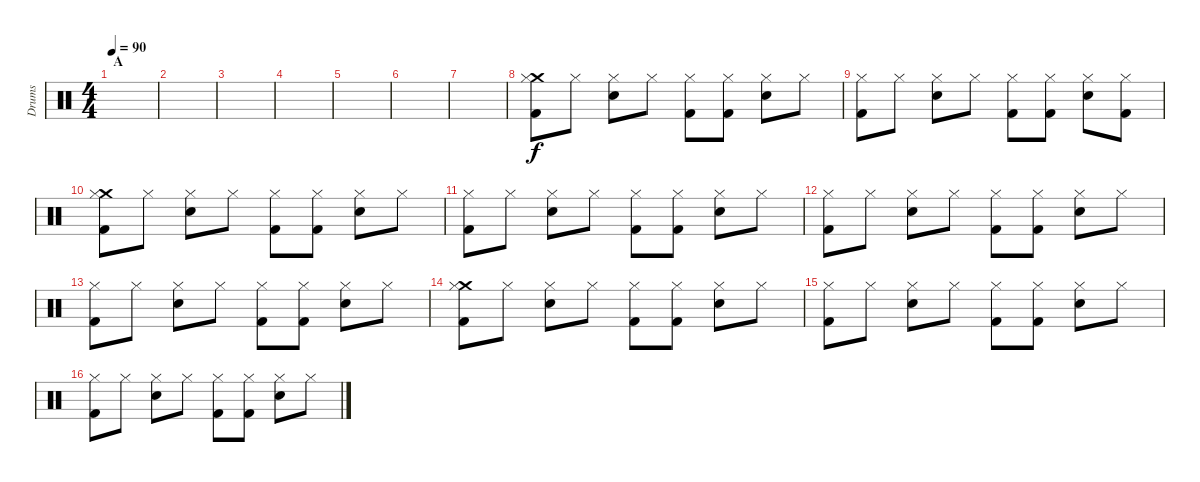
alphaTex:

\track ("Drums" "Drums") {instrument percussion}
\staff {score}
\articulation defaults
\ts (4 4)
\section ("" "A")
\tempo 90
\clef neutral
\ks c
|
|
|
|
|
|
|
("Crash medium (hit)" "Hi-Hat (closed)" "Kick (hit) 2").8 "Hi-Hat (closed)".8 ("Hi-Hat (closed)" "Snare (hit) 2").8 "Hi-Hat (closed)".8 ("Hi-Hat (closed)" "Kick (hit) 2").8 ("Hi-Hat (closed)" "Kick (hit) 2").8 ("Hi-Hat (closed)" "Snare (hit) 2").8 "Hi-Hat (closed)".8 |
("Hi-Hat (closed)" "Kick (hit) 2").8 "Hi-Hat (closed)".8 ("Hi-Hat (closed)" "Snare (hit) 2").8 "Hi-Hat (closed)".8 ("Hi-Hat (closed)" "Kick (hit) 2").8 ("Hi-Hat (closed)" "Kick (hit) 2").8 ("Hi-Hat (closed)" "Snare (hit) 2").8 ("Hi-Hat (closed)" "Kick (hit) 2").8 |
("Crash medium (hit)" "Hi-Hat (closed)" "Kick (hit) 2").8 "Hi-Hat (closed)".8 ("Hi-Hat (closed)" "Snare (hit) 2").8 "Hi-Hat (closed)".8 ("Hi-Hat (closed)" "Kick (hit) 2").8 ("Hi-Hat (closed)" "Kick (hit) 2").8 ("Hi-Hat (closed)" "Snare (hit) 2").8 "Hi-Hat (closed)".8 |
("Hi-Hat (closed)" "Kick (hit) 2").8 "Hi-Hat (closed)".8 ("Hi-Hat (closed)" "Snare (hit) 2").8 "Hi-Hat (closed)".8 ("Hi-Hat (closed)" "Kick (hit) 2").8 ("Hi-Hat (closed)" "Kick (hit) 2").8 ("Hi-Hat (closed)" "Snare (hit) 2").8 "Hi-Hat (closed)".8 |
("Hi-Hat (closed)" "Kick (hit) 2").8 "Hi-Hat (closed)".8 ("Hi-Hat (closed)" "Snare (hit) 2").8 "Hi-Hat (closed)".8 ("Hi-Hat (closed)" "Kick (hit) 2").8 ("Hi-Hat (closed)" "Kick (hit) 2").8 ("Hi-Hat (closed)" "Snare (hit) 2").8 "Hi-Hat (closed)".8 |
("Hi-Hat (closed)" "Kick (hit) 2").8 "Hi-Hat (closed)".8 ("Hi-Hat (closed)" "Snare (hit) 2").8 "Hi-Hat (closed)".8 ("Hi-Hat (closed)" "Kick (hit) 2").8 ("Hi-Hat (closed)" "Kick (hit) 2").8 ("Hi-Hat (closed)" "Snare (hit) 2").8 "Hi-Hat (closed)".8 |
("Crash medium (hit)" "Hi-Hat (closed)" "Kick (hit) 2").8 "Hi-Hat (closed)".8 ("Hi-Hat (closed)" "Snare (hit) 2").8 "Hi-Hat (closed)".8 ("Hi-Hat (closed)" "Kick (hit) 2").8 ("Hi-Hat (closed)" "Kick (hit) 2").8 ("Hi-Hat (closed)" "Snare (hit) 2").8 "Hi-Hat (closed)".8 |
("Hi-Hat (closed)" "Kick (hit) 2").8 "Hi-Hat (closed)".8 ("Hi-Hat (closed)" "Snare (hit) 2").8 "Hi-Hat (closed)".8 ("Hi-Hat (closed)" "Kick (hit) 2").8 ("Hi-Hat (closed)" "Kick (hit) 2").8 ("Hi-Hat (closed)" "Snare (hit) 2").8 "Hi-Hat (closed)".8 |
("Hi-Hat (closed)" "Kick (hit) 2").8 "Hi-Hat (closed)".8 ("Hi-Hat (closed)" "Snare (hit) 2").8 "Hi-Hat (closed)".8 ("Hi-Hat (closed)" "Kick (hit) 2").8 ("Hi-Hat (closed)" "Kick (hit) 2").8 ("Hi-Hat (closed)" "Snare (hit) 2").8 "Hi-Hat (closed)".8
